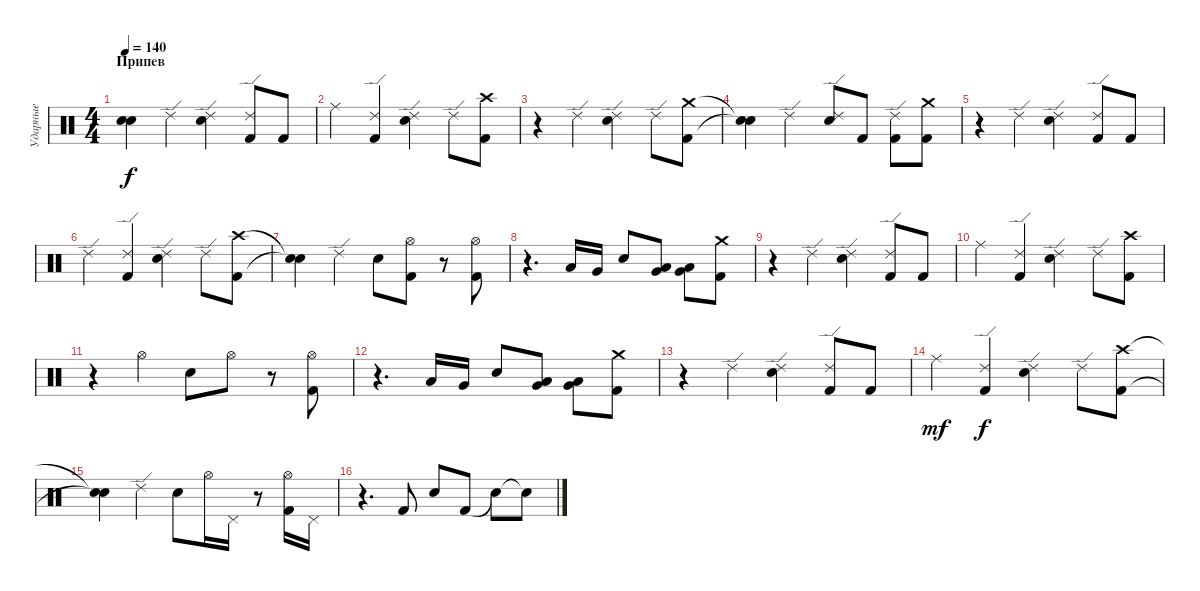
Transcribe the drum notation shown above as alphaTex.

\track ("Ударные" "Ударные") {instrument percussion}
\staff {score}
\articulation defaults
\ts (4 4)
\section ("" "Припев")
\tempo 140
\clef neutral
\ks c
("Snare (hit)"{t} "Snare (hit)"{t}).4{dy f} "Ride (edge) 2".4 ("Snare (hit) 2" "Ride (edge) 2").4 ("Kick (hit) 2" "Ride (edge) 2").8 "Kick (hit) 2".8 |
"Ride (middle)".4 ("Kick (hit) 2" "Ride (edge) 2").4 ("Snare (hit) 2" "Ride (edge) 2").4 "Ride (edge) 2".8 ("Crash high (hit)" "Kick (hit) 2").8 |
r.4 "Ride (edge) 2".4 ("Snare (hit) 2" "Ride (edge) 2").4 "Ride (edge) 2".8 ("Crash medium (hit)" "Kick (hit) 2").8 |
("Snare (hit)"{t} "Snare (hit)"{t}).4 "Ride (edge) 2".4 ("Snare (hit) 2" "Ride (edge) 2").8 "Kick (hit) 2".8 ("Ride (edge) 2" "Kick (hit) 2").8 ("Crash medium (hit)" "Kick (hit) 2").8 |
r.4 "Ride (edge) 2".4 ("Snare (hit) 2" "Ride (edge) 2").4 ("Kick (hit) 2" "Ride (edge) 2").8 "Kick (hit) 2".8 |
"Ride (edge) 2".4 ("Kick (hit) 2" "Ride (edge) 2").4 ("Snare (hit) 2" "Ride (edge) 2").4 "Ride (edge) 2".8 ("Crash high (hit)" "Kick (hit) 2").8 |
("Snare (hit)"{t} "Snare (hit)"{t}).4 "Ride (edge) 2".4 "Snare (hit) 2".8 ("Hi-Hat (open)" "Kick (hit) 2").8 r.8 ("Hi-Hat (open)" "Kick (hit) 2").8 |
r.4{d} "Low Tom (hit)".16 "Very Low Tom (hit)".16 "Snare (hit) 2".8 ("Very Low Tom (hit)" "Low Tom (hit)").8 ("Very Low Tom (hit)" "Low Floor Tom (hit)").8 ("Crash medium (hit)" "Kick (hit) 2").8 |
r.4 "Ride (edge) 2".4 ("Snare (hit) 2" "Ride (edge) 2").4 ("Kick (hit) 2" "Ride (edge) 2").8 "Kick (hit) 2".8 |
"Ride (middle)".4 ("Kick (hit) 2" "Ride (edge) 2").4 ("Snare (hit) 2" "Ride (edge) 2").4 "Ride (edge) 2".8 ("Crash high (hit)" "Kick (hit) 2").8 |
r.4 "Hi-Hat (open)".4 "Snare (hit) 2".8 "Hi-Hat (open)".8 r.8 ("Hi-Hat (open)" "Kick (hit) 2").8 |
r.4{d} "Low Tom (hit)".16 "Very Low Tom (hit)".16 "Snare (hit) 2".8 ("Very Low Tom (hit)" "Low Tom (hit)").8 ("Low Floor Tom (hit)" "Very Low Tom (hit)").8 ("Crash medium (hit)" "Kick (hit) 2").8 |
r.4 "Ride (edge) 2".4 ("Snare (hit) 2" "Ride (edge) 2").4 ("Kick (hit) 2" "Ride (edge) 2").8 "Kick (hit) 2".8 |
"Ride (middle)".4{dy mf} ("Kick (hit) 2" "Ride (edge) 2").4{dy f} ("Snare (hit) 2" "Ride (edge) 2").4 "Ride (edge) 2".8 ("Crash high (hit)" "Kick (hit) 2").8 |
("Snare (hit)"{t} "Snare (hit)"{t}).4 "Ride (edge) 2".4 "Snare (hit) 2".8 "Hi-Hat (open)".16 "Pedal Hi-Hat (hit)".16 r.8 ("Hi-Hat (open)" "Kick (hit) 2").16 "Pedal Hi-Hat (hit)".16 |
r.4{d} "Kick (hit) 2".8 "Snare (hit) 2".8 "Kick (hit) 2".8 "Snare (hit)"{t}.8 "Snare (hit)"{t}.8
